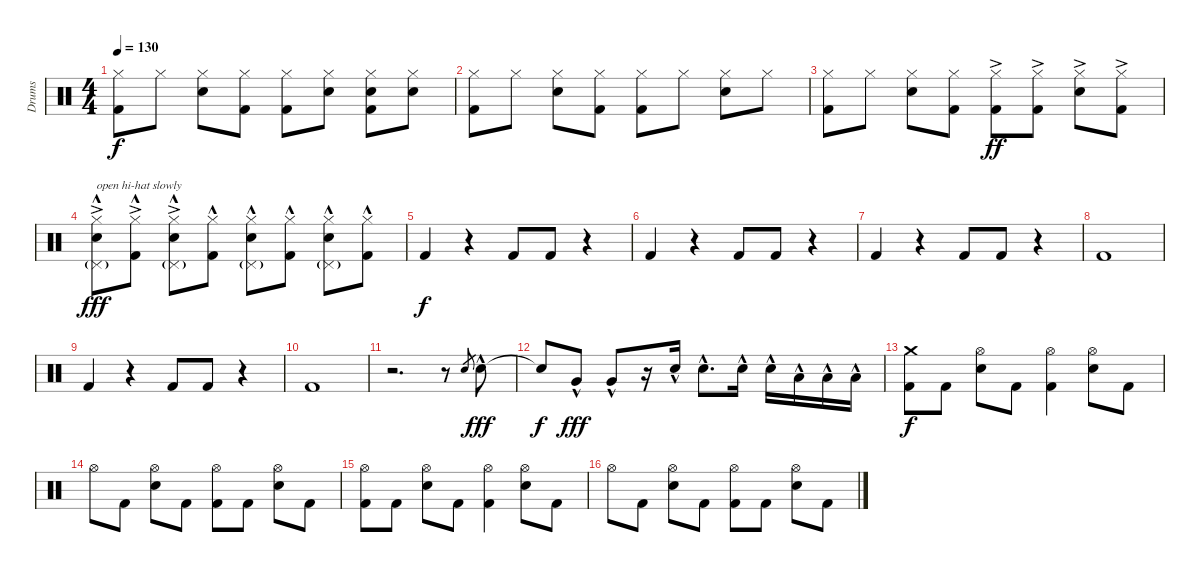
\track ("Drums" "Drums") {instrument percussion}
\staff {score}
\articulation defaults
\ts (4 4)
\tempo 130
\clef neutral
\ks c
("Hi-Hat (closed)" "Kick (hit) 2").8{dy f} "Hi-Hat (closed)".8 ("Hi-Hat (closed)" "Electric Snare (hit)").8 ("Hi-Hat (closed)" "Kick (hit) 2").8 ("Hi-Hat (closed)" "Kick (hit) 2").8 ("Hi-Hat (closed)" "Electric Snare (hit)").8 ("Hi-Hat (closed)" "Electric Snare (hit)" "Kick (hit) 2").8 ("Hi-Hat (closed)" "Electric Snare (hit)").8 |
("Hi-Hat (closed)" "Kick (hit) 2").8 "Hi-Hat (closed)".8 ("Hi-Hat (closed)" "Electric Snare (hit)").8 ("Hi-Hat (closed)" "Kick (hit) 2").8 ("Hi-Hat (closed)" "Kick (hit) 2").8 "Hi-Hat (closed)".8 ("Hi-Hat (closed)" "Electric Snare (hit)").8 "Hi-Hat (closed)".8 |
("Hi-Hat (closed)" "Kick (hit) 2").8 "Hi-Hat (closed)".8 ("Hi-Hat (closed)" "Electric Snare (hit)").8 ("Hi-Hat (closed)" "Kick (hit) 2").8 ("Hi-Hat (closed)"{ac} "Kick (hit) 2").8{dy ff} ("Hi-Hat (closed)"{ac} "Kick (hit) 2").8 ("Hi-Hat (closed)"{ac} "Electric Snare (hit)").8 ("Hi-Hat (closed)"{ac} "Kick (hit) 2").8 |
("Hi-Hat (closed)"{ac} "Pedal Hi-Hat (hit)"{g} "Electric Snare (hit)"{hac}).8{txt "open hi-hat slowly" dy fff} ("Hi-Hat (closed)"{ac} "Kick (hit) 2"{hac}).8 ("Hi-Hat (closed)"{ac} "Pedal Hi-Hat (hit)"{g} "Electric Snare (hit)"{hac}).8 ("Hi-Hat (closed)"{hac} "Kick (hit) 2"{hac}).8 ("Hi-Hat (closed)"{hac} "Pedal Hi-Hat (hit)"{g} "Electric Snare (hit)"{hac}).8 ("Hi-Hat (closed)"{hac} "Kick (hit) 2"{hac}).8 ("Hi-Hat (closed)"{hac} "Pedal Hi-Hat (hit)"{g} "Electric Snare (hit)"{hac}).8 ("Hi-Hat (closed)"{hac} "Kick (hit) 2"{hac}).8 |
"Kick (hit) 2".4{dy f} r.4 "Kick (hit) 2".8 "Kick (hit) 2".8 r.4 |
"Kick (hit) 2".4 r.4 "Kick (hit) 2".8 "Kick (hit) 2".8 r.4 |
"Kick (hit) 2".4 r.4 "Kick (hit) 2".8 "Kick (hit) 2".8 r.4 |
"Kick (hit) 2".1 |
"Kick (hit) 2".4 r.4 "Kick (hit) 2".8 "Kick (hit) 2".8 r.4 |
"Kick (hit) 2".1 |
r.2{d} r.8 "Electric Snare (hit)".8{gr} "Electric Snare (hit)"{hac}.8{dy fff} |
"Electric Snare (hit)"{t}.8{dy f} "Very Low Tom (hit)"{hac}.8{dy fff} "Very Low Tom (hit)"{hac}.8 r.16 "Electric Snare (hit)"{hac}.16 "Electric Snare (hit)"{hac}.8{d} "Electric Snare (hit)"{hac}.16 "Electric Snare (hit)"{hac}.16 "Low Tom (hit)"{hac}.16 "Low Tom (hit)"{hac}.16 "Low Floor Tom (hit)"{hac}.16 |
("Crash medium (hit)" "Kick (hit) 2").8{dy f} "Kick (hit) 2".8 ("Hi-Hat (open)" "Electric Snare (hit)").8 "Kick (hit) 2".8 ("Hi-Hat (open)" "Kick (hit) 2").4 ("Hi-Hat (open)" "Electric Snare (hit)").8 "Kick (hit) 2".8 |
"Hi-Hat (open)".8 "Kick (hit) 2".8 ("Hi-Hat (open)" "Electric Snare (hit)").8 "Kick (hit) 2".8 ("Hi-Hat (open)" "Kick (hit) 2").8 "Kick (hit) 2".8 ("Hi-Hat (open)" "Electric Snare (hit)").8 "Kick (hit) 2".8 |
("Hi-Hat (open)" "Kick (hit) 2").8 "Kick (hit) 2".8 ("Hi-Hat (open)" "Electric Snare (hit)").8 "Kick (hit) 2".8 ("Hi-Hat (open)" "Kick (hit) 2").4 ("Hi-Hat (open)" "Electric Snare (hit)").8 "Kick (hit) 2".8 |
"Hi-Hat (open)".8 "Kick (hit) 2".8 ("Hi-Hat (open)" "Electric Snare (hit)").8 "Kick (hit) 2".8 ("Hi-Hat (open)" "Kick (hit) 2").8 "Kick (hit) 2".8 ("Hi-Hat (open)" "Electric Snare (hit)").8 "Kick (hit) 2".8
